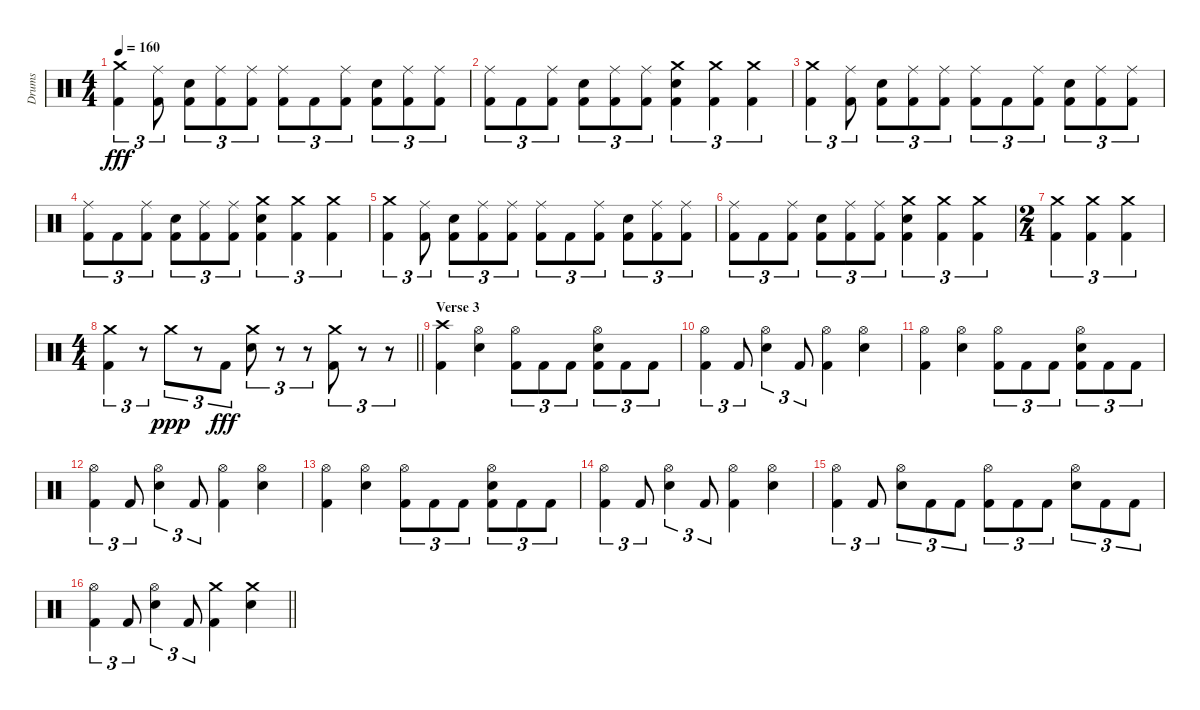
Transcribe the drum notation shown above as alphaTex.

\track ("Drums" "Drums") {instrument percussion}
\staff {score}
\articulation defaults
\ts (4 4)
\tempo 160
\clef neutral
\ks c
("Crash medium (hit)" "Kick (hit) 2").4{tu (3 2) dy fff} ("Ride (middle)" "Kick (hit) 2").8{tu (3 2)} ("Snare (hit) 2" "Kick (hit) 2").8{tu (3 2)} ("Ride (middle)" "Kick (hit) 2").8{tu (3 2)} ("Ride (middle)" "Kick (hit) 2").8{tu (3 2)} ("Ride (middle)" "Kick (hit) 2").8{tu (3 2)} "Kick (hit) 2".8{tu (3 2)} ("Ride (middle)" "Kick (hit) 2").8{tu (3 2)} ("Snare (hit) 2" "Kick (hit) 2").8{tu (3 2)} ("Ride (middle)" "Kick (hit) 2").8{tu (3 2)} ("Ride (middle)" "Kick (hit) 2").8{tu (3 2)} |
("Ride (middle)" "Kick (hit) 2").8{tu (3 2)} "Kick (hit) 2".8{tu (3 2)} ("Ride (middle)" "Kick (hit) 2").8{tu (3 2)} ("Snare (hit) 2" "Kick (hit) 2").8{tu (3 2)} ("Ride (middle)" "Kick (hit) 2").8{tu (3 2)} ("Ride (middle)" "Kick (hit) 2").8{tu (3 2)} ("Crash medium (hit)" "Snare (hit) 2" "Kick (hit) 2").4{tu (3 2)} ("Crash medium (hit)" "Kick (hit) 2").4{tu (3 2)} ("Crash medium (hit)" "Kick (hit) 2").4{tu (3 2)} |
("Crash medium (hit)" "Kick (hit) 2").4{tu (3 2)} ("Ride (middle)" "Kick (hit) 2").8{tu (3 2)} ("Snare (hit) 2" "Kick (hit) 2").8{tu (3 2)} ("Ride (middle)" "Kick (hit) 2").8{tu (3 2)} ("Ride (middle)" "Kick (hit) 2").8{tu (3 2)} ("Ride (middle)" "Kick (hit) 2").8{tu (3 2)} "Kick (hit) 2".8{tu (3 2)} ("Ride (middle)" "Kick (hit) 2").8{tu (3 2)} ("Snare (hit) 2" "Kick (hit) 2").8{tu (3 2)} ("Ride (middle)" "Kick (hit) 2").8{tu (3 2)} ("Ride (middle)" "Kick (hit) 2").8{tu (3 2)} |
("Ride (middle)" "Kick (hit) 2").8{tu (3 2)} "Kick (hit) 2".8{tu (3 2)} ("Ride (middle)" "Kick (hit) 2").8{tu (3 2)} ("Snare (hit) 2" "Kick (hit) 2").8{tu (3 2)} ("Ride (middle)" "Kick (hit) 2").8{tu (3 2)} ("Ride (middle)" "Kick (hit) 2").8{tu (3 2)} ("Crash medium (hit)" "Snare (hit) 2" "Kick (hit) 2").4{tu (3 2)} ("Crash medium (hit)" "Kick (hit) 2").4{tu (3 2)} ("Crash medium (hit)" "Kick (hit) 2").4{tu (3 2)} |
("Crash medium (hit)" "Kick (hit) 2").4{tu (3 2)} ("Ride (middle)" "Kick (hit) 2").8{tu (3 2)} ("Snare (hit) 2" "Kick (hit) 2").8{tu (3 2)} ("Ride (middle)" "Kick (hit) 2").8{tu (3 2)} ("Ride (middle)" "Kick (hit) 2").8{tu (3 2)} ("Ride (middle)" "Kick (hit) 2").8{tu (3 2)} "Kick (hit) 2".8{tu (3 2)} ("Ride (middle)" "Kick (hit) 2").8{tu (3 2)} ("Snare (hit) 2" "Kick (hit) 2").8{tu (3 2)} ("Ride (middle)" "Kick (hit) 2").8{tu (3 2)} ("Ride (middle)" "Kick (hit) 2").8{tu (3 2)} |
("Ride (middle)" "Kick (hit) 2").8{tu (3 2)} "Kick (hit) 2".8{tu (3 2)} ("Ride (middle)" "Kick (hit) 2").8{tu (3 2)} ("Snare (hit) 2" "Kick (hit) 2").8{tu (3 2)} ("Ride (middle)" "Kick (hit) 2").8{tu (3 2)} ("Ride (middle)" "Kick (hit) 2").8{tu (3 2)} ("Crash medium (hit)" "Snare (hit) 2" "Kick (hit) 2").4{tu (3 2)} ("Crash medium (hit)" "Kick (hit) 2").4{tu (3 2)} ("Crash medium (hit)" "Kick (hit) 2").4{tu (3 2)} |
\ts (2 4)
("Crash medium (hit)" "Kick (hit) 2").4{tu (3 2)} ("Crash medium (hit)" "Kick (hit) 2").4{tu (3 2)} ("Crash medium (hit)" "Kick (hit) 2").4{tu (3 2)} |
\ts (4 4)
\barLineRight lightlight
("Crash medium (hit)" "Kick (hit) 2").4{tu (3 2)} r.8{tu (3 2)} "Crash medium (hit)".8{tu (3 2) dy ppp} r.8{tu (3 2)} "Kick (hit) 2".8{tu (3 2) dy fff} ("Crash medium (hit)" "Snare (hit) 2").8{tu (3 2)} r.8{tu (3 2)} r.8{tu (3 2)} ("Crash medium (hit)" "Kick (hit) 2").8{tu (3 2)} r.8{tu (3 2)} r.8{tu (3 2)} |
\section ("" "Verse 3")
("Crash high (hit)" "Kick (hit) 2").4 ("Hi-Hat (open)" "Snare (hit) 2").4 ("Hi-Hat (open)" "Kick (hit) 2").8{tu (3 2)} "Kick (hit) 2".8{tu (3 2)} "Kick (hit) 2".8{tu (3 2)} ("Hi-Hat (open)" "Snare (hit) 2" "Kick (hit) 2").8{tu (3 2)} "Kick (hit) 2".8{tu (3 2)} "Kick (hit) 2".8{tu (3 2)} |
("Hi-Hat (open)" "Kick (hit) 2").4{tu (3 2)} "Kick (hit) 2".8{tu (3 2)} ("Hi-Hat (open)" "Snare (hit) 2").4{tu (3 2)} "Kick (hit) 2".8{tu (3 2)} ("Hi-Hat (open)" "Kick (hit) 2").4 ("Hi-Hat (open)" "Snare (hit) 2").4 |
("Hi-Hat (open)" "Kick (hit) 2").4 ("Hi-Hat (open)" "Snare (hit) 2").4 ("Hi-Hat (open)" "Kick (hit) 2").8{tu (3 2)} "Kick (hit) 2".8{tu (3 2)} "Kick (hit) 2".8{tu (3 2)} ("Hi-Hat (open)" "Snare (hit) 2" "Kick (hit) 2").8{tu (3 2)} "Kick (hit) 2".8{tu (3 2)} "Kick (hit) 2".8{tu (3 2)} |
("Hi-Hat (open)" "Kick (hit) 2").4{tu (3 2)} "Kick (hit) 2".8{tu (3 2)} ("Hi-Hat (open)" "Snare (hit) 2").4{tu (3 2)} "Kick (hit) 2".8{tu (3 2)} ("Hi-Hat (open)" "Kick (hit) 2").4 ("Hi-Hat (open)" "Snare (hit) 2").4 |
("Hi-Hat (open)" "Kick (hit) 2").4 ("Hi-Hat (open)" "Snare (hit) 2").4 ("Hi-Hat (open)" "Kick (hit) 2").8{tu (3 2)} "Kick (hit) 2".8{tu (3 2)} "Kick (hit) 2".8{tu (3 2)} ("Hi-Hat (open)" "Snare (hit) 2" "Kick (hit) 2").8{tu (3 2)} "Kick (hit) 2".8{tu (3 2)} "Kick (hit) 2".8{tu (3 2)} |
("Hi-Hat (open)" "Kick (hit) 2").4{tu (3 2)} "Kick (hit) 2".8{tu (3 2)} ("Hi-Hat (open)" "Snare (hit) 2").4{tu (3 2)} "Kick (hit) 2".8{tu (3 2)} ("Hi-Hat (open)" "Kick (hit) 2").4 ("Hi-Hat (open)" "Snare (hit) 2").4 |
("Hi-Hat (open)" "Kick (hit) 2").4{tu (3 2)} "Kick (hit) 2".8{tu (3 2)} ("Hi-Hat (open)" "Snare (hit) 2").8{tu (3 2)} "Kick (hit) 2".8{tu (3 2)} "Kick (hit) 2".8{tu (3 2)} ("Hi-Hat (open)" "Kick (hit) 2").8{tu (3 2)} "Kick (hit) 2".8{tu (3 2)} "Kick (hit) 2".8{tu (3 2)} ("Hi-Hat (open)" "Snare (hit) 2").8{tu (3 2)} "Kick (hit) 2".8{tu (3 2)} "Kick (hit) 2".8{tu (3 2)} |
\barLineRight lightlight
("Hi-Hat (open)" "Kick (hit) 2").4{tu (3 2)} "Kick (hit) 2".8{tu (3 2)} ("Hi-Hat (open)" "Snare (hit) 2").4{tu (3 2)} "Kick (hit) 2".8{tu (3 2)} ("Crash medium (hit)" "Kick (hit) 2").4 ("Crash medium (hit)" "Snare (hit) 2").4
